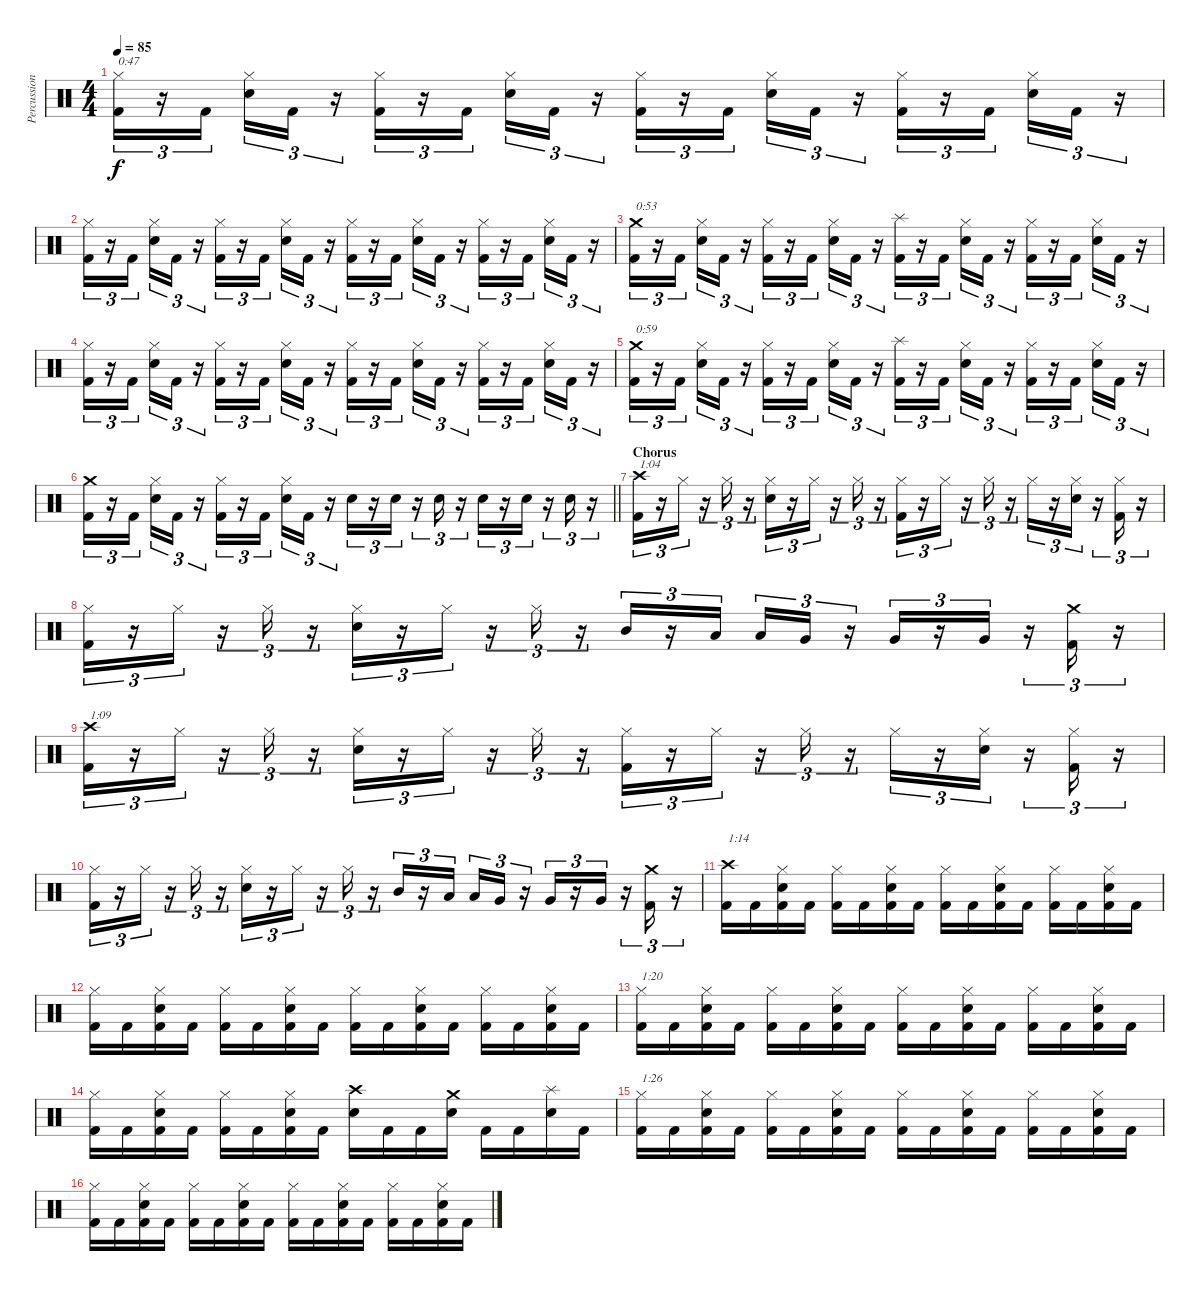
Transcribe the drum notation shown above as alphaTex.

\track ("Percussion" "Percussion") {instrument percussion}
\staff {score}
\articulation defaults
\ts (4 4)
\tempo 85
\clef neutral
\ks c
("Hi-Hat (closed)" "Kick (hit) 2").16{tu (3 2) txt "0:47" dy f} r.16{tu (3 2)} "Kick (hit) 2".16{tu (3 2)} ("Hi-Hat (closed)" "Snare (hit) 2").16{tu (3 2)} "Kick (hit) 2".16{tu (3 2)} r.16{tu (3 2)} ("Hi-Hat (closed)" "Kick (hit) 2").16{tu (3 2)} r.16{tu (3 2)} "Kick (hit) 2".16{tu (3 2)} ("Hi-Hat (closed)" "Snare (hit) 2").16{tu (3 2)} "Kick (hit) 2".16{tu (3 2)} r.16{tu (3 2)} ("Hi-Hat (closed)" "Kick (hit) 2").16{tu (3 2)} r.16{tu (3 2)} "Kick (hit) 2".16{tu (3 2)} ("Hi-Hat (closed)" "Snare (hit) 2").16{tu (3 2)} "Kick (hit) 2".16{tu (3 2)} r.16{tu (3 2)} ("Hi-Hat (closed)" "Kick (hit) 2").16{tu (3 2)} r.16{tu (3 2)} "Kick (hit) 2".16{tu (3 2)} ("Hi-Hat (closed)" "Snare (hit) 2").16{tu (3 2)} "Kick (hit) 2".16{tu (3 2)} r.16{tu (3 2)} |
("Hi-Hat (closed)" "Kick (hit) 2").16{tu (3 2)} r.16{tu (3 2)} "Kick (hit) 2".16{tu (3 2)} ("Hi-Hat (closed)" "Snare (hit) 2").16{tu (3 2)} "Kick (hit) 2".16{tu (3 2)} r.16{tu (3 2)} ("Hi-Hat (closed)" "Kick (hit) 2").16{tu (3 2)} r.16{tu (3 2)} "Kick (hit) 2".16{tu (3 2)} ("Hi-Hat (closed)" "Snare (hit) 2").16{tu (3 2)} "Kick (hit) 2".16{tu (3 2)} r.16{tu (3 2)} ("Hi-Hat (closed)" "Kick (hit) 2").16{tu (3 2)} r.16{tu (3 2)} "Kick (hit) 2".16{tu (3 2)} ("Hi-Hat (closed)" "Snare (hit) 2").16{tu (3 2)} "Kick (hit) 2".16{tu (3 2)} r.16{tu (3 2)} ("Hi-Hat (closed)" "Kick (hit) 2").16{tu (3 2)} r.16{tu (3 2)} "Kick (hit) 2".16{tu (3 2)} ("Hi-Hat (closed)" "Snare (hit) 2").16{tu (3 2)} "Kick (hit) 2".16{tu (3 2)} r.16{tu (3 2)} |
("Crash medium (hit)" "Kick (hit) 2").16{tu (3 2) txt "0:53"} r.16{tu (3 2)} "Kick (hit) 2".16{tu (3 2)} ("Hi-Hat (closed)" "Snare (hit) 2").16{tu (3 2)} "Kick (hit) 2".16{tu (3 2)} r.16{tu (3 2)} ("Hi-Hat (closed)" "Kick (hit) 2").16{tu (3 2)} r.16{tu (3 2)} "Kick (hit) 2".16{tu (3 2)} ("Hi-Hat (closed)" "Snare (hit) 2").16{tu (3 2)} "Kick (hit) 2".16{tu (3 2)} r.16{tu (3 2)} ("Splash (hit)" "Kick (hit) 2").16{tu (3 2)} r.16{tu (3 2)} "Kick (hit) 2".16{tu (3 2)} ("Hi-Hat (closed)" "Snare (hit) 2").16{tu (3 2)} "Kick (hit) 2".16{tu (3 2)} r.16{tu (3 2)} ("Hi-Hat (closed)" "Kick (hit) 2").16{tu (3 2)} r.16{tu (3 2)} "Kick (hit) 2".16{tu (3 2)} ("Hi-Hat (closed)" "Snare (hit) 2").16{tu (3 2)} "Kick (hit) 2".16{tu (3 2)} r.16{tu (3 2)} |
("Hi-Hat (closed)" "Kick (hit) 2").16{tu (3 2)} r.16{tu (3 2)} "Kick (hit) 2".16{tu (3 2)} ("Hi-Hat (closed)" "Snare (hit) 2").16{tu (3 2)} "Kick (hit) 2".16{tu (3 2)} r.16{tu (3 2)} ("Hi-Hat (closed)" "Kick (hit) 2").16{tu (3 2)} r.16{tu (3 2)} "Kick (hit) 2".16{tu (3 2)} ("Hi-Hat (closed)" "Snare (hit) 2").16{tu (3 2)} "Kick (hit) 2".16{tu (3 2)} r.16{tu (3 2)} ("Hi-Hat (closed)" "Kick (hit) 2").16{tu (3 2)} r.16{tu (3 2)} "Kick (hit) 2".16{tu (3 2)} ("Hi-Hat (closed)" "Snare (hit) 2").16{tu (3 2)} "Kick (hit) 2".16{tu (3 2)} r.16{tu (3 2)} ("Hi-Hat (closed)" "Kick (hit) 2").16{tu (3 2)} r.16{tu (3 2)} "Kick (hit) 2".16{tu (3 2)} ("Hi-Hat (closed)" "Snare (hit) 2").16{tu (3 2)} "Kick (hit) 2".16{tu (3 2)} r.16{tu (3 2)} |
("Crash medium (hit)" "Kick (hit) 2").16{tu (3 2) txt "0:59"} r.16{tu (3 2)} "Kick (hit) 2".16{tu (3 2)} ("Hi-Hat (closed)" "Snare (hit) 2").16{tu (3 2)} "Kick (hit) 2".16{tu (3 2)} r.16{tu (3 2)} ("Hi-Hat (closed)" "Kick (hit) 2").16{tu (3 2)} r.16{tu (3 2)} "Kick (hit) 2".16{tu (3 2)} ("Hi-Hat (closed)" "Snare (hit) 2").16{tu (3 2)} "Kick (hit) 2".16{tu (3 2)} r.16{tu (3 2)} ("Splash (hit)" "Kick (hit) 2").16{tu (3 2)} r.16{tu (3 2)} "Kick (hit) 2".16{tu (3 2)} ("Hi-Hat (closed)" "Snare (hit) 2").16{tu (3 2)} "Kick (hit) 2".16{tu (3 2)} r.16{tu (3 2)} ("Hi-Hat (closed)" "Kick (hit) 2").16{tu (3 2)} r.16{tu (3 2)} "Kick (hit) 2".16{tu (3 2)} ("Hi-Hat (closed)" "Snare (hit) 2").16{tu (3 2)} "Kick (hit) 2".16{tu (3 2)} r.16{tu (3 2)} |
\barLineRight lightlight
("Crash medium (hit)" "Kick (hit) 2").16{tu (3 2)} r.16{tu (3 2)} "Kick (hit) 2".16{tu (3 2)} ("Hi-Hat (closed)" "Snare (hit) 2").16{tu (3 2)} "Kick (hit) 2".16{tu (3 2)} r.16{tu (3 2)} ("Hi-Hat (closed)" "Kick (hit) 2").16{tu (3 2)} r.16{tu (3 2)} "Kick (hit) 2".16{tu (3 2)} ("Hi-Hat (closed)" "Snare (hit) 2").16{tu (3 2)} "Kick (hit) 2".16{tu (3 2)} r.16{tu (3 2)} "Snare (hit) 2".16{tu (3 2)} r.16{tu (3 2)} "Snare (hit) 2".16{tu (3 2)} r.16{tu (3 2)} "Snare (hit) 2".16{tu (3 2)} r.16{tu (3 2)} "Snare (hit) 2".16{tu (3 2)} r.16{tu (3 2)} "Snare (hit) 2".16{tu (3 2)} r.16{tu (3 2)} "Snare (hit) 2".16{tu (3 2)} r.16{tu (3 2)} |
\section ("" "Chorus")
("Crash high (hit)" "Kick (hit) 2").16{tu (3 2) txt "1:04"} r.16{tu (3 2)} "Hi-Hat (closed)".16{tu (3 2)} r.16{tu (3 2)} "Hi-Hat (closed)".16{tu (3 2)} r.16{tu (3 2)} ("Hi-Hat (closed)" "Snare (hit) 2").16{tu (3 2)} r.16{tu (3 2)} "Hi-Hat (closed)".16{tu (3 2)} r.16{tu (3 2)} "Hi-Hat (closed)".16{tu (3 2)} r.16{tu (3 2)} ("Hi-Hat (closed)" "Kick (hit) 2").16{tu (3 2)} r.16{tu (3 2)} "Hi-Hat (closed)".16{tu (3 2)} r.16{tu (3 2)} "Hi-Hat (closed)".16{tu (3 2)} r.16{tu (3 2)} "Hi-Hat (closed)".16{tu (3 2)} r.16{tu (3 2)} ("Hi-Hat (closed)" "Snare (hit) 2").16{tu (3 2)} r.16{tu (3 2)} ("Hi-Hat (closed)" "Kick (hit) 2").16{tu (3 2)} r.16{tu (3 2)} |
("Hi-Hat (closed)" "Kick (hit) 2").16{tu (3 2)} r.16{tu (3 2)} "Hi-Hat (closed)".16{tu (3 2)} r.16{tu (3 2)} "Hi-Hat (closed)".16{tu (3 2)} r.16{tu (3 2)} ("Hi-Hat (closed)" "Snare (hit) 2").16{tu (3 2)} r.16{tu (3 2)} "Hi-Hat (closed)".16{tu (3 2)} r.16{tu (3 2)} "Hi-Hat (closed)".16{tu (3 2)} r.16{tu (3 2)} "Mid Tom (hit)".16{tu (3 2)} r.16{tu (3 2)} "Low Tom (hit)".16{tu (3 2)} "Low Tom (hit)".16{tu (3 2)} "Very Low Tom (hit)".16{tu (3 2)} r.16{tu (3 2)} "Very Low Tom (hit)".16{tu (3 2)} r.16{tu (3 2)} "Very Low Tom (hit)".16{tu (3 2)} r.16{tu (3 2)} ("Crash medium (hit)" "Kick (hit) 2").16{tu (3 2)} r.16{tu (3 2)} |
("Crash high (hit)" "Kick (hit) 2").16{tu (3 2) txt "1:09"} r.16{tu (3 2)} "Hi-Hat (closed)".16{tu (3 2)} r.16{tu (3 2)} "Hi-Hat (closed)".16{tu (3 2)} r.16{tu (3 2)} ("Hi-Hat (closed)" "Snare (hit) 2").16{tu (3 2)} r.16{tu (3 2)} "Hi-Hat (closed)".16{tu (3 2)} r.16{tu (3 2)} "Hi-Hat (closed)".16{tu (3 2)} r.16{tu (3 2)} ("Hi-Hat (closed)" "Kick (hit) 2").16{tu (3 2)} r.16{tu (3 2)} "Hi-Hat (closed)".16{tu (3 2)} r.16{tu (3 2)} "Hi-Hat (closed)".16{tu (3 2)} r.16{tu (3 2)} "Hi-Hat (closed)".16{tu (3 2)} r.16{tu (3 2)} ("Hi-Hat (closed)" "Snare (hit) 2").16{tu (3 2)} r.16{tu (3 2)} ("Hi-Hat (closed)" "Kick (hit) 2").16{tu (3 2)} r.16{tu (3 2)} |
("Hi-Hat (closed)" "Kick (hit) 2").16{tu (3 2)} r.16{tu (3 2)} "Hi-Hat (closed)".16{tu (3 2)} r.16{tu (3 2)} "Hi-Hat (closed)".16{tu (3 2)} r.16{tu (3 2)} ("Hi-Hat (closed)" "Snare (hit) 2").16{tu (3 2)} r.16{tu (3 2)} "Hi-Hat (closed)".16{tu (3 2)} r.16{tu (3 2)} "Hi-Hat (closed)".16{tu (3 2)} r.16{tu (3 2)} "Mid Tom (hit)".16{tu (3 2)} r.16{tu (3 2)} "Low Tom (hit)".16{tu (3 2)} "Low Tom (hit)".16{tu (3 2)} "Very Low Tom (hit)".16{tu (3 2)} r.16{tu (3 2)} "Very Low Tom (hit)".16{tu (3 2)} r.16{tu (3 2)} "Very Low Tom (hit)".16{tu (3 2)} r.16{tu (3 2)} ("Crash medium (hit)" "Kick (hit) 2").16{tu (3 2)} r.16{tu (3 2)} |
("Crash high (hit)" "Kick (hit) 2").16{txt "1:14"} "Kick (hit) 2".16 ("Hi-Hat (closed)" "Snare (hit) 2" "Kick (hit) 2").16 "Kick (hit) 2".16 ("Hi-Hat (closed)" "Kick (hit) 2").16 "Kick (hit) 2".16 ("Hi-Hat (closed)" "Snare (hit) 2" "Kick (hit) 2").16 "Kick (hit) 2".16 ("Hi-Hat (closed)" "Kick (hit) 2").16 "Kick (hit) 2".16 ("Hi-Hat (closed)" "Snare (hit) 2" "Kick (hit) 2").16 "Kick (hit) 2".16 ("Hi-Hat (closed)" "Kick (hit) 2").16 "Kick (hit) 2".16 ("Hi-Hat (closed)" "Snare (hit) 2" "Kick (hit) 2").16 "Kick (hit) 2".16 |
("Hi-Hat (closed)" "Kick (hit) 2").16 "Kick (hit) 2".16 ("Hi-Hat (closed)" "Snare (hit) 2" "Kick (hit) 2").16 "Kick (hit) 2".16 ("Hi-Hat (closed)" "Kick (hit) 2").16 "Kick (hit) 2".16 ("Hi-Hat (closed)" "Snare (hit) 2" "Kick (hit) 2").16 "Kick (hit) 2".16 ("Hi-Hat (closed)" "Kick (hit) 2").16 "Kick (hit) 2".16 ("Hi-Hat (closed)" "Snare (hit) 2" "Kick (hit) 2").16 "Kick (hit) 2".16 ("Hi-Hat (closed)" "Kick (hit) 2").16 "Kick (hit) 2".16 ("Hi-Hat (closed)" "Snare (hit) 2" "Kick (hit) 2").16 "Kick (hit) 2".16 |
("Hi-Hat (closed)" "Kick (hit) 2").16{txt "1:20"} "Kick (hit) 2".16 ("Hi-Hat (closed)" "Snare (hit) 2" "Kick (hit) 2").16 "Kick (hit) 2".16 ("Hi-Hat (closed)" "Kick (hit) 2").16 "Kick (hit) 2".16 ("Hi-Hat (closed)" "Snare (hit) 2" "Kick (hit) 2").16 "Kick (hit) 2".16 ("Hi-Hat (closed)" "Kick (hit) 2").16 "Kick (hit) 2".16 ("Hi-Hat (closed)" "Snare (hit) 2" "Kick (hit) 2").16 "Kick (hit) 2".16 ("Hi-Hat (closed)" "Kick (hit) 2").16 "Kick (hit) 2".16 ("Hi-Hat (closed)" "Snare (hit) 2" "Kick (hit) 2").16 "Kick (hit) 2".16 |
("Hi-Hat (closed)" "Kick (hit) 2").16 "Kick (hit) 2".16 ("Hi-Hat (closed)" "Snare (hit) 2" "Kick (hit) 2").16 "Kick (hit) 2".16 ("Hi-Hat (closed)" "Kick (hit) 2").16 "Kick (hit) 2".16 ("Hi-Hat (closed)" "Snare (hit) 2" "Kick (hit) 2").16 "Kick (hit) 2".16 ("Crash high (hit)" "Snare (hit) 2").16 "Kick (hit) 2".16 "Kick (hit) 2".16 ("Crash medium (hit)" "Snare (hit) 2").16 "Kick (hit) 2".16 "Kick (hit) 2".16 ("Splash (hit)" "Snare (hit) 2").16 "Kick (hit) 2".16 |
("Hi-Hat (closed)" "Kick (hit) 2").16{txt "1:26"} "Kick (hit) 2".16 ("Hi-Hat (closed)" "Snare (hit) 2" "Kick (hit) 2").16 "Kick (hit) 2".16 ("Hi-Hat (closed)" "Kick (hit) 2").16 "Kick (hit) 2".16 ("Hi-Hat (closed)" "Snare (hit) 2" "Kick (hit) 2").16 "Kick (hit) 2".16 ("Hi-Hat (closed)" "Kick (hit) 2").16 "Kick (hit) 2".16 ("Hi-Hat (closed)" "Snare (hit) 2" "Kick (hit) 2").16 "Kick (hit) 2".16 ("Hi-Hat (closed)" "Kick (hit) 2").16 "Kick (hit) 2".16 ("Hi-Hat (closed)" "Snare (hit) 2" "Kick (hit) 2").16 "Kick (hit) 2".16 |
("Hi-Hat (closed)" "Kick (hit) 2").16 "Kick (hit) 2".16 ("Hi-Hat (closed)" "Snare (hit) 2" "Kick (hit) 2").16 "Kick (hit) 2".16 ("Hi-Hat (closed)" "Kick (hit) 2").16 "Kick (hit) 2".16 ("Hi-Hat (closed)" "Snare (hit) 2" "Kick (hit) 2").16 "Kick (hit) 2".16 ("Hi-Hat (closed)" "Kick (hit) 2").16 "Kick (hit) 2".16 ("Hi-Hat (closed)" "Snare (hit) 2" "Kick (hit) 2").16 "Kick (hit) 2".16 ("Hi-Hat (closed)" "Kick (hit) 2").16 "Kick (hit) 2".16 ("Hi-Hat (closed)" "Snare (hit) 2" "Kick (hit) 2").16 "Kick (hit) 2".16
